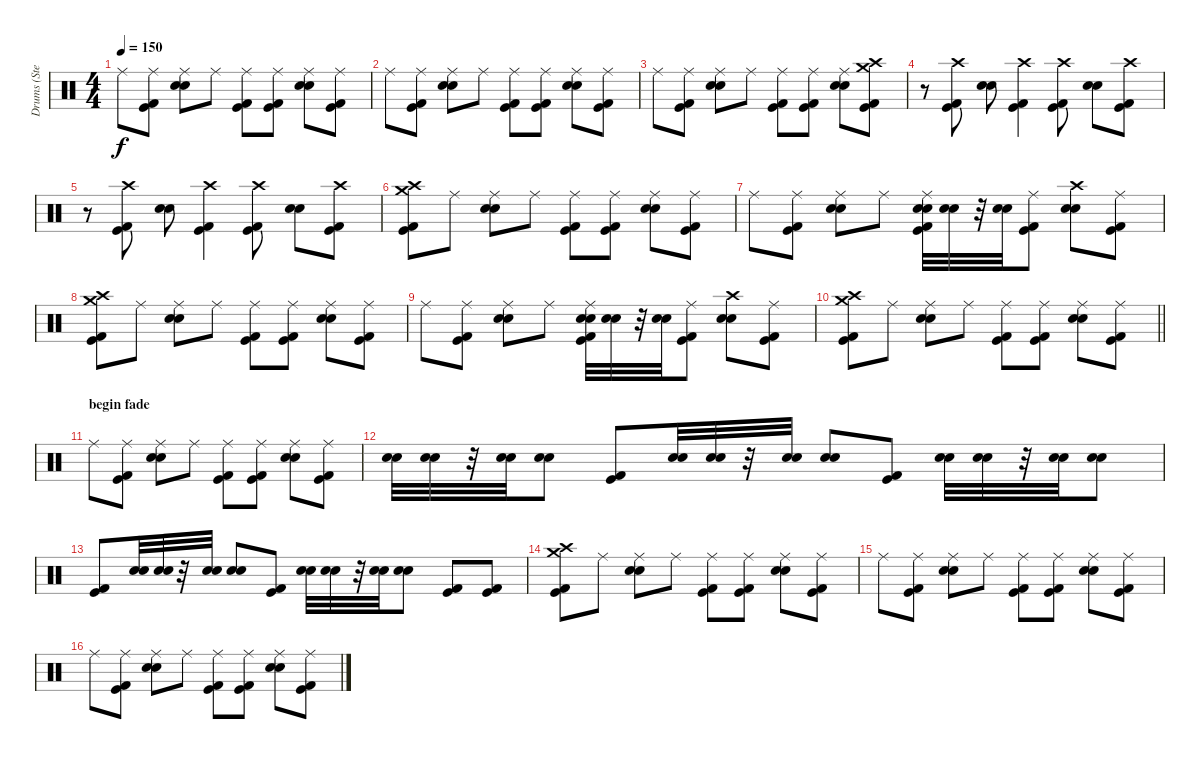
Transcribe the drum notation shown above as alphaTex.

\track ("Drums (Steven)" "Drums (Ste") {instrument percussion}
\staff {score}
\articulation defaults
\ts (4 4)
\tempo 150
\clef neutral
\ks c "Ride (middle)".8{dy f}
("Kick (hit) 2" "Kick (hit)" "Ride (middle)").8 ("Electric Snare (hit)" "Snare (hit) 2" "Ride (middle)").8 "Ride (middle)".8 ("Kick (hit) 2" "Kick (hit)" "Ride (middle)").8 ("Kick (hit) 2" "Kick (hit)" "Ride (middle)").8 ("Electric Snare (hit)" "Snare (hit) 2" "Ride (middle)").8 ("Kick (hit) 2" "Kick (hit)" "Ride (middle)").8 |
"Ride (middle)".8 ("Kick (hit) 2" "Kick (hit)" "Ride (middle)").8 ("Electric Snare (hit)" "Snare (hit) 2" "Ride (middle)").8 "Ride (middle)".8 ("Kick (hit) 2" "Kick (hit)" "Ride (middle)").8 ("Kick (hit) 2" "Kick (hit)" "Ride (middle)").8 ("Electric Snare (hit)" "Snare (hit) 2" "Ride (middle)").8 ("Kick (hit) 2" "Kick (hit)" "Ride (middle)").8 |
"Ride (middle)".8 ("Kick (hit) 2" "Kick (hit)" "Ride (middle)").8 ("Electric Snare (hit)" "Snare (hit) 2" "Ride (middle)").8 "Ride (middle)".8 ("Kick (hit) 2" "Kick (hit)" "Ride (middle)").8 ("Kick (hit) 2" "Kick (hit)" "Ride (middle)").8 ("Electric Snare (hit)" "Snare (hit) 2" "Ride (middle)").8 ("Kick (hit) 2" "Kick (hit)" "Crash medium (hit)" "Crash high (hit)").8 |
r.8 ("Kick (hit) 2" "Kick (hit)" "Crash high (hit)").8 ("Electric Snare (hit)" "Snare (hit) 2").8 ("Kick (hit) 2" "Kick (hit)" "Crash high (hit)").4 ("Kick (hit) 2" "Kick (hit)" "Crash high (hit)").8 ("Electric Snare (hit)" "Snare (hit) 2").8 ("Kick (hit) 2" "Kick (hit)" "Crash high (hit)").8 |
r.8 ("Kick (hit) 2" "Kick (hit)" "Crash high (hit)").8 ("Electric Snare (hit)" "Snare (hit) 2").8 ("Kick (hit) 2" "Kick (hit)" "Crash high (hit)").4 ("Kick (hit) 2" "Kick (hit)" "Crash high (hit)").8 ("Electric Snare (hit)" "Snare (hit) 2").8 ("Kick (hit) 2" "Kick (hit)" "Crash high (hit)").8 |
("Kick (hit) 2" "Kick (hit)" "Crash medium (hit)" "Crash high (hit)").8 "Ride (middle)".8 ("Electric Snare (hit)" "Snare (hit) 2" "Ride (middle)").8 "Ride (middle)".8 ("Kick (hit) 2" "Kick (hit)" "Ride (middle)").8 ("Kick (hit) 2" "Kick (hit)" "Ride (middle)").8 ("Electric Snare (hit)" "Snare (hit) 2" "Ride (middle)").8 ("Kick (hit) 2" "Kick (hit)" "Ride (middle)").8 |
"Ride (middle)".8 ("Kick (hit) 2" "Kick (hit)" "Ride (middle)").8 ("Electric Snare (hit)" "Snare (hit) 2" "Ride (middle)").8 "Ride (middle)".8 ("Kick (hit) 2" "Kick (hit)" "Snare (hit) 2" "Electric Snare (hit)" "Ride (middle)").32 ("Snare (hit) 2" "Electric Snare (hit)").32 r.32 ("Electric Snare (hit)" "Snare (hit) 2").32 ("Kick (hit) 2" "Kick (hit)" "Ride (middle)").8 ("Electric Snare (hit)" "Snare (hit) 2" "Crash high (hit)").8 ("Kick (hit) 2" "Kick (hit)" "Ride (middle)").8 |
("Kick (hit) 2" "Kick (hit)" "Crash medium (hit)" "Crash high (hit)").8 "Ride (middle)".8 ("Electric Snare (hit)" "Snare (hit) 2" "Ride (middle)").8 "Ride (middle)".8 ("Kick (hit) 2" "Kick (hit)" "Ride (middle)").8 ("Kick (hit) 2" "Kick (hit)" "Ride (middle)").8 ("Electric Snare (hit)" "Snare (hit) 2" "Ride (middle)").8 ("Kick (hit) 2" "Kick (hit)" "Ride (middle)").8 |
"Ride (middle)".8 ("Kick (hit) 2" "Kick (hit)" "Ride (middle)").8 ("Electric Snare (hit)" "Snare (hit) 2" "Ride (middle)").8 "Ride (middle)".8 ("Kick (hit) 2" "Kick (hit)" "Snare (hit) 2" "Electric Snare (hit)" "Ride (middle)").32 ("Snare (hit) 2" "Electric Snare (hit)").32 r.32 ("Electric Snare (hit)" "Snare (hit) 2").32 ("Kick (hit) 2" "Kick (hit)" "Ride (middle)").8 ("Electric Snare (hit)" "Snare (hit) 2" "Crash high (hit)").8 ("Kick (hit) 2" "Kick (hit)" "Ride (middle)").8 |
\barLineRight lightlight
("Kick (hit) 2" "Kick (hit)" "Crash medium (hit)" "Crash high (hit)").8 "Ride (middle)".8 ("Electric Snare (hit)" "Snare (hit) 2" "Ride (middle)").8 "Ride (middle)".8 ("Kick (hit) 2" "Kick (hit)" "Ride (middle)").8 ("Kick (hit) 2" "Kick (hit)" "Ride (middle)").8 ("Electric Snare (hit)" "Snare (hit) 2" "Ride (middle)").8 ("Kick (hit) 2" "Kick (hit)" "Ride (middle)").8 |
\section ("" "begin fade")
"Ride (middle)".8 ("Kick (hit) 2" "Kick (hit)" "Ride (middle)").8 ("Electric Snare (hit)" "Snare (hit) 2" "Ride (middle)").8 "Ride (middle)".8 ("Kick (hit) 2" "Kick (hit)" "Ride (middle)").8 ("Kick (hit) 2" "Kick (hit)" "Ride (middle)").8 ("Electric Snare (hit)" "Snare (hit) 2" "Ride (middle)").8 ("Kick (hit) 2" "Kick (hit)" "Ride (middle)").8 |
("Snare (hit) 2" "Electric Snare (hit)").32 ("Snare (hit) 2" "Electric Snare (hit)").32 r.32 ("Snare (hit) 2" "Electric Snare (hit)").32 ("Snare (hit) 2" "Electric Snare (hit)").8 ("Kick (hit) 2" "Kick (hit)").8 ("Snare (hit) 2" "Electric Snare (hit)").32 ("Snare (hit) 2" "Electric Snare (hit)").32 r.32 ("Snare (hit) 2" "Electric Snare (hit)").32 ("Snare (hit) 2" "Electric Snare (hit)").8 ("Kick (hit) 2" "Kick (hit)").8 ("Snare (hit) 2" "Electric Snare (hit)").32 ("Snare (hit) 2" "Electric Snare (hit)").32 r.32 ("Snare (hit) 2" "Electric Snare (hit)").32 ("Snare (hit) 2" "Electric Snare (hit)").8 |
("Kick (hit) 2" "Kick (hit)").8 ("Snare (hit) 2" "Electric Snare (hit)").32 ("Snare (hit) 2" "Electric Snare (hit)").32 r.32 ("Snare (hit) 2" "Electric Snare (hit)").32 ("Snare (hit) 2" "Electric Snare (hit)").8 ("Kick (hit) 2" "Kick (hit)").8 ("Snare (hit) 2" "Electric Snare (hit)").32 ("Snare (hit) 2" "Electric Snare (hit)").32 r.32 ("Snare (hit) 2" "Electric Snare (hit)").32 ("Snare (hit) 2" "Electric Snare (hit)").8 ("Kick (hit) 2" "Kick (hit)").8 ("Kick (hit) 2" "Kick (hit)").8 |
("Kick (hit) 2" "Kick (hit)" "Crash medium (hit)" "Crash high (hit)").8 "Ride (middle)".8 ("Electric Snare (hit)" "Snare (hit) 2" "Ride (middle)").8 "Ride (middle)".8 ("Kick (hit) 2" "Kick (hit)" "Ride (middle)").8 ("Kick (hit) 2" "Kick (hit)" "Ride (middle)").8 ("Electric Snare (hit)" "Snare (hit) 2" "Ride (middle)").8 ("Kick (hit) 2" "Kick (hit)" "Ride (middle)").8 |
"Ride (middle)".8 ("Kick (hit) 2" "Kick (hit)" "Ride (middle)").8 ("Electric Snare (hit)" "Snare (hit) 2" "Ride (middle)").8 "Ride (middle)".8 ("Kick (hit) 2" "Kick (hit)" "Ride (middle)").8 ("Kick (hit) 2" "Kick (hit)" "Ride (middle)").8 ("Electric Snare (hit)" "Snare (hit) 2" "Ride (middle)").8 ("Kick (hit) 2" "Kick (hit)" "Ride (middle)").8 |
"Ride (middle)".8 ("Kick (hit) 2" "Kick (hit)" "Ride (middle)").8 ("Electric Snare (hit)" "Snare (hit) 2" "Ride (middle)").8 "Ride (middle)".8 ("Kick (hit) 2" "Kick (hit)" "Ride (middle)").8 ("Kick (hit) 2" "Kick (hit)" "Ride (middle)").8 ("Electric Snare (hit)" "Snare (hit) 2" "Ride (middle)").8 ("Kick (hit) 2" "Kick (hit)" "Ride (middle)").8
